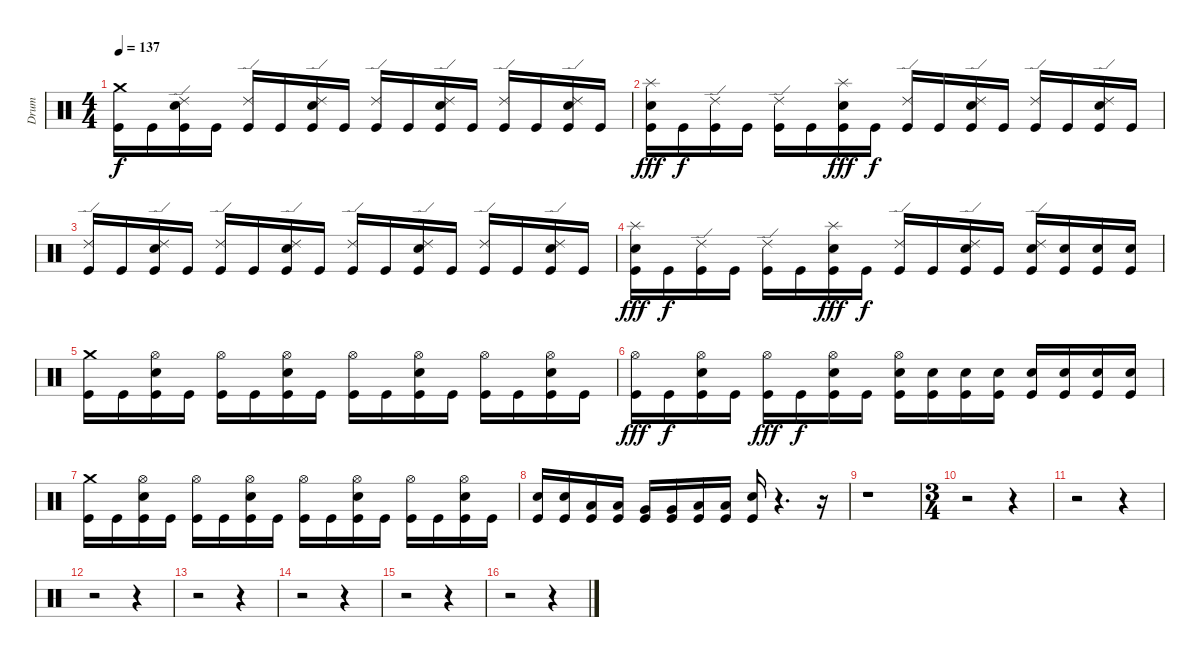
\track ("Drum" "Drum") {instrument percussion}
\staff {score}
\articulation defaults
\ts (4 4)
\tempo 137
\clef neutral
\ks c
("Crash medium (hit)" "Kick (hit)").16{dy f} "Kick (hit)".16 ("Ride (edge) 2" "Snare (hit) 2" "Kick (hit)").16 "Kick (hit)".16 ("Ride (edge) 2" "Kick (hit)").16 "Kick (hit)".16 ("Ride (edge) 2" "Snare (hit) 2" "Kick (hit)").16 "Kick (hit)".16 ("Ride (edge) 2" "Kick (hit)").16 "Kick (hit)".16 ("Ride (edge) 2" "Snare (hit) 2" "Kick (hit)").16 "Kick (hit)".16 ("Ride (edge) 2" "Kick (hit)").16 "Kick (hit)".16 ("Ride (edge) 2" "Snare (hit) 2" "Kick (hit)").16 "Kick (hit)".16 |
("Splash (hit)" "Snare (hit) 2" "Kick (hit)").16{dy fff} "Kick (hit)".16{dy f} ("Ride (edge) 2" "Kick (hit)").16 "Kick (hit)".16 ("Ride (edge) 2" "Kick (hit)").16 "Kick (hit)".16 ("Splash (hit)" "Snare (hit) 2" "Kick (hit)").16{dy fff} "Kick (hit)".16{dy f} ("Ride (edge) 2" "Kick (hit)").16 "Kick (hit)".16 ("Ride (edge) 2" "Snare (hit) 2" "Kick (hit)").16 "Kick (hit)".16 ("Ride (edge) 2" "Kick (hit)").16 "Kick (hit)".16 ("Ride (edge) 2" "Snare (hit) 2" "Kick (hit)").16 "Kick (hit)".16 |
("Ride (edge) 2" "Kick (hit)").16 "Kick (hit)".16 ("Ride (edge) 2" "Snare (hit) 2" "Kick (hit)").16 "Kick (hit)".16 ("Ride (edge) 2" "Kick (hit)").16 "Kick (hit)".16 ("Ride (edge) 2" "Snare (hit) 2" "Kick (hit)").16 "Kick (hit)".16 ("Ride (edge) 2" "Kick (hit)").16 "Kick (hit)".16 ("Ride (edge) 2" "Snare (hit) 2" "Kick (hit)").16 "Kick (hit)".16 ("Ride (edge) 2" "Kick (hit)").16 "Kick (hit)".16 ("Ride (edge) 2" "Snare (hit) 2" "Kick (hit)").16 "Kick (hit)".16 |
("Splash (hit)" "Snare (hit) 2" "Kick (hit)").16{dy fff} "Kick (hit)".16{dy f} ("Ride (edge) 2" "Kick (hit)").16 "Kick (hit)".16 ("Ride (edge) 2" "Kick (hit)").16 "Kick (hit)".16 ("Splash (hit)" "Snare (hit) 2" "Kick (hit)").16{dy fff} "Kick (hit)".16{dy f} ("Ride (edge) 2" "Kick (hit)").16 "Kick (hit)".16 ("Ride (edge) 2" "Snare (hit) 2" "Kick (hit)").16 "Kick (hit)".16 ("Ride (edge) 2" "Snare (hit) 2" "Kick (hit)").16 ("Snare (hit) 2" "Kick (hit)").16 ("Snare (hit) 2" "Kick (hit)").16 ("Snare (hit) 2" "Kick (hit)").16 |
("Crash medium (hit)" "Kick (hit)").16 "Kick (hit)".16 ("Hi-Hat (open)" "Snare (hit) 2" "Kick (hit)").16 "Kick (hit)".16 ("Hi-Hat (open)" "Kick (hit)").16 "Kick (hit)".16 ("Hi-Hat (open)" "Snare (hit) 2" "Kick (hit)").16 "Kick (hit)".16 ("Hi-Hat (open)" "Kick (hit)").16 "Kick (hit)".16 ("Hi-Hat (open)" "Snare (hit) 2" "Kick (hit)").16 "Kick (hit)".16 ("Hi-Hat (open)" "Kick (hit)").16 "Kick (hit)".16 ("Hi-Hat (open)" "Snare (hit) 2" "Kick (hit)").16 "Kick (hit)".16 |
("Hi-Hat (open)" "Kick (hit)").16{dy fff} "Kick (hit)".16{dy f} ("Hi-Hat (open)" "Snare (hit) 2" "Kick (hit)").16 "Kick (hit)".16 ("Hi-Hat (open)" "Kick (hit)").16{dy fff} "Kick (hit)".16{dy f} ("Hi-Hat (open)" "Snare (hit) 2" "Kick (hit)").16 "Kick (hit)".16 ("Hi-Hat (open)" "Snare (hit) 2" "Kick (hit)").16 ("Snare (hit) 2" "Kick (hit)").16 ("Snare (hit) 2" "Kick (hit)").16 ("Snare (hit) 2" "Kick (hit)").16 ("Snare (hit) 2" "Kick (hit)").16 ("Snare (hit) 2" "Kick (hit)").16 ("Snare (hit) 2" "Kick (hit)").16 ("Snare (hit) 2" "Kick (hit)").16 |
("Crash medium (hit)" "Kick (hit)").16 "Kick (hit)".16 ("Hi-Hat (open)" "Snare (hit) 2" "Kick (hit)").16 "Kick (hit)".16 ("Hi-Hat (open)" "Kick (hit)").16 "Kick (hit)".16 ("Hi-Hat (open)" "Snare (hit) 2" "Kick (hit)").16 "Kick (hit)".16 ("Hi-Hat (open)" "Kick (hit)").16 "Kick (hit)".16 ("Hi-Hat (open)" "Snare (hit) 2" "Kick (hit)").16 "Kick (hit)".16 ("Hi-Hat (open)" "Kick (hit)").16 "Kick (hit)".16 ("Hi-Hat (open)" "Snare (hit) 2" "Kick (hit)").16 "Kick (hit)".16 |
("Snare (hit) 2" "Kick (hit)").16 ("Snare (hit) 2" "Kick (hit)").16 ("Low Tom (hit)" "Kick (hit)").16 ("Low Tom (hit)" "Kick (hit)").16 ("Very Low Tom (hit)" "Kick (hit)").16 ("Very Low Tom (hit)" "Kick (hit)").16 ("Low Floor Tom (hit)" "Kick (hit)").16 ("Low Floor Tom (hit)" "Kick (hit)").16 ("Snare (hit) 2" "Kick (hit)").16 r.4{d} r.16 |
r.1 |
\ts (3 4)
r.2 r.4 |
r.2 r.4 |
r.2 r.4 |
r.2 r.4 |
r.2 r.4 |
r.2 r.4 |
r.2 r.4
